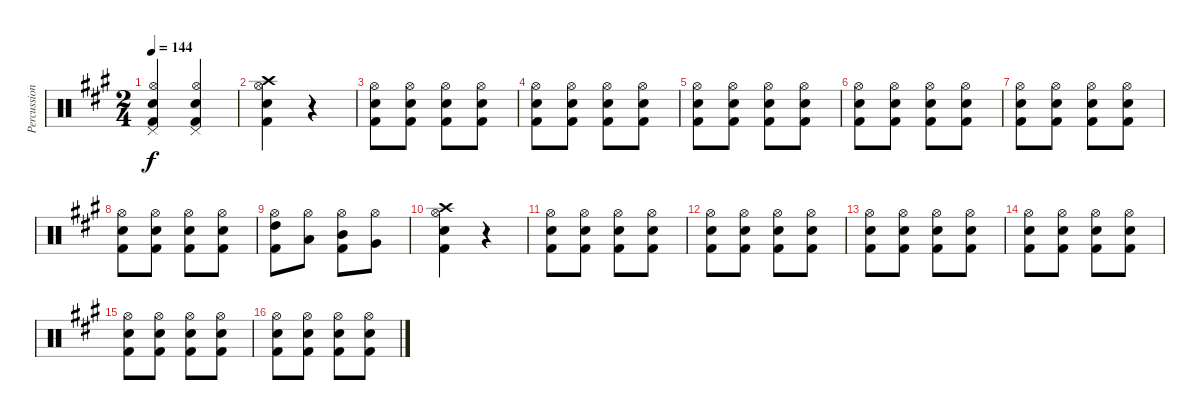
\track ("Percussion" "Percussion") {instrument percussion}
\staff {score}
\articulation defaults
\ts (2 4)
\tempo 144
\clef neutral
\ks a
("Pedal Hi-Hat (hit)" "Hi-Hat (open)" "Snare (hit) 2" "Kick (hit) 2").4{dy f} ("Pedal Hi-Hat (hit)" "Hi-Hat (open)" "Snare (hit) 2" "Kick (hit) 2").4 |
("Crash high (hit)" "Hi-Hat (open)" "Snare (hit) 2" "Kick (hit) 2").4 r.4 |
("Hi-Hat (open)" "Snare (hit) 2" "Kick (hit) 2").8 ("Hi-Hat (open)" "Snare (hit) 2" "Kick (hit) 2").8 ("Hi-Hat (open)" "Snare (hit) 2" "Kick (hit) 2").8 ("Hi-Hat (open)" "Snare (hit) 2" "Kick (hit) 2").8 |
("Hi-Hat (open)" "Snare (hit) 2" "Kick (hit) 2").8 ("Hi-Hat (open)" "Snare (hit) 2" "Kick (hit) 2").8 ("Hi-Hat (open)" "Snare (hit) 2" "Kick (hit) 2").8 ("Hi-Hat (open)" "Snare (hit) 2" "Kick (hit) 2").8 |
("Hi-Hat (open)" "Snare (hit) 2" "Kick (hit) 2").8 ("Hi-Hat (open)" "Snare (hit) 2" "Kick (hit) 2").8 ("Hi-Hat (open)" "Snare (hit) 2" "Kick (hit) 2").8 ("Hi-Hat (open)" "Snare (hit) 2" "Kick (hit) 2").8 |
("Hi-Hat (open)" "Snare (hit) 2" "Kick (hit) 2").8 ("Hi-Hat (open)" "Snare (hit) 2" "Kick (hit) 2").8 ("Hi-Hat (open)" "Snare (hit) 2" "Kick (hit) 2").8 ("Hi-Hat (open)" "Snare (hit) 2" "Kick (hit) 2").8 |
("Hi-Hat (open)" "Snare (hit) 2" "Kick (hit) 2").8 ("Hi-Hat (open)" "Snare (hit) 2" "Kick (hit) 2").8 ("Hi-Hat (open)" "Snare (hit) 2" "Kick (hit) 2").8 ("Hi-Hat (open)" "Snare (hit) 2" "Kick (hit) 2").8 |
("Hi-Hat (open)" "Snare (hit) 2" "Kick (hit) 2").8 ("Hi-Hat (open)" "Snare (hit) 2" "Kick (hit) 2").8 ("Hi-Hat (open)" "Snare (hit) 2" "Kick (hit) 2").8 ("Hi-Hat (open)" "Snare (hit) 2" "Kick (hit) 2").8 |
("Hi-Hat (open)" "High Tom (hit)" "Kick (hit) 2").8 ("Hi-Hat (open)" "Low Tom (hit)").8 ("Hi-Hat (open)" "Mid Tom (hit)" "Kick (hit) 2").8 ("Hi-Hat (open)" "Very Low Tom (hit)").8 |
("Crash high (hit)" "Hi-Hat (open)" "Snare (hit) 2" "Kick (hit) 2").4 r.4 |
("Hi-Hat (open)" "Snare (hit) 2" "Kick (hit) 2").8 ("Hi-Hat (open)" "Snare (hit) 2" "Kick (hit) 2").8 ("Hi-Hat (open)" "Snare (hit) 2" "Kick (hit) 2").8 ("Hi-Hat (open)" "Snare (hit) 2" "Kick (hit) 2").8 |
("Hi-Hat (open)" "Snare (hit) 2" "Kick (hit) 2").8 ("Hi-Hat (open)" "Snare (hit) 2" "Kick (hit) 2").8 ("Hi-Hat (open)" "Snare (hit) 2" "Kick (hit) 2").8 ("Hi-Hat (open)" "Snare (hit) 2" "Kick (hit) 2").8 |
("Hi-Hat (open)" "Snare (hit) 2" "Kick (hit) 2").8 ("Hi-Hat (open)" "Snare (hit) 2" "Kick (hit) 2").8 ("Hi-Hat (open)" "Snare (hit) 2" "Kick (hit) 2").8 ("Hi-Hat (open)" "Snare (hit) 2" "Kick (hit) 2").8 |
("Hi-Hat (open)" "Snare (hit) 2" "Kick (hit) 2").8 ("Hi-Hat (open)" "Snare (hit) 2" "Kick (hit) 2").8 ("Hi-Hat (open)" "Snare (hit) 2" "Kick (hit) 2").8 ("Hi-Hat (open)" "Snare (hit) 2" "Kick (hit) 2").8 |
("Hi-Hat (open)" "Snare (hit) 2" "Kick (hit) 2").8 ("Hi-Hat (open)" "Snare (hit) 2" "Kick (hit) 2").8 ("Hi-Hat (open)" "Snare (hit) 2" "Kick (hit) 2").8 ("Hi-Hat (open)" "Snare (hit) 2" "Kick (hit) 2").8 |
("Hi-Hat (open)" "Snare (hit) 2" "Kick (hit) 2").8 ("Hi-Hat (open)" "Snare (hit) 2" "Kick (hit) 2").8 ("Hi-Hat (open)" "Snare (hit) 2" "Kick (hit) 2").8 ("Hi-Hat (open)" "Snare (hit) 2" "Kick (hit) 2").8
